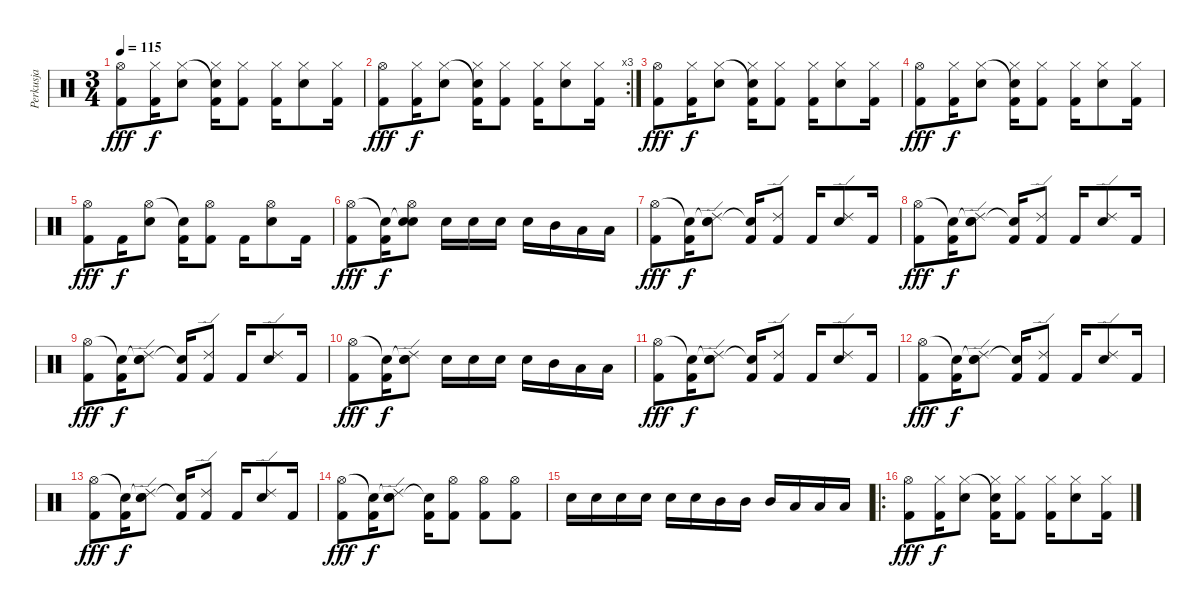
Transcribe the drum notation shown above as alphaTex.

\track ("Perkusja" "Perkusja") {instrument percussion}
\staff {score}
\articulation defaults
\ts (3 4)
\tempo 115
\clef neutral
\ks c
("Hi-Hat (open)" "Kick (hit) 2").8{dy fff} ("Hi-Hat (closed)" "Kick (hit) 2").16{dy f} ("Hi-Hat (closed)" "Snare (hit) 2").8 ("Snare (hit)"{t} "Hi-Hat (closed)" "Kick (hit) 2").16 ("Hi-Hat (closed)" "Kick (hit) 2").8 ("Hi-Hat (closed)" "Kick (hit) 2").16 ("Hi-Hat (closed)" "Snare (hit) 2").8 ("Hi-Hat (closed)" "Kick (hit) 2").16 |
\rc 3
("Hi-Hat (open)" "Kick (hit) 2").8{dy fff} ("Hi-Hat (closed)" "Kick (hit) 2").16{dy f} ("Hi-Hat (closed)" "Snare (hit) 2").8 ("Snare (hit)"{t} "Hi-Hat (closed)" "Kick (hit) 2").16 ("Hi-Hat (closed)" "Kick (hit) 2").8 ("Hi-Hat (closed)" "Kick (hit) 2").16 ("Hi-Hat (closed)" "Snare (hit) 2").8 ("Hi-Hat (closed)" "Kick (hit) 2").16 |
("Hi-Hat (open)" "Kick (hit) 2").8{dy fff} ("Hi-Hat (closed)" "Kick (hit) 2").16{dy f} ("Hi-Hat (closed)" "Snare (hit) 2").8 ("Snare (hit)"{t} "Hi-Hat (closed)" "Kick (hit) 2").16 ("Hi-Hat (closed)" "Kick (hit) 2").8 ("Hi-Hat (closed)" "Kick (hit) 2").16 ("Hi-Hat (closed)" "Snare (hit) 2").8 ("Hi-Hat (closed)" "Kick (hit) 2").16 |
("Hi-Hat (open)" "Kick (hit) 2").8{dy fff} ("Hi-Hat (closed)" "Kick (hit) 2").16{dy f} ("Hi-Hat (closed)" "Snare (hit) 2").8 ("Snare (hit)"{t} "Hi-Hat (closed)" "Kick (hit) 2").16 ("Hi-Hat (closed)" "Kick (hit) 2").8 ("Hi-Hat (closed)" "Kick (hit) 2").16 ("Hi-Hat (closed)" "Snare (hit) 2").8 ("Hi-Hat (closed)" "Kick (hit) 2").16 |
("Hi-Hat (open)" "Kick (hit) 2").8{dy fff} "Kick (hit) 2".16{dy f} ("Hi-Hat (open)" "Snare (hit) 2").8 ("Snare (hit)"{t} "Kick (hit) 2").16 ("Hi-Hat (open)" "Kick (hit) 2").8 "Kick (hit) 2".16 ("Hi-Hat (open)" "Snare (hit) 2").8 "Kick (hit) 2".16 |
("Hi-Hat (open)" "Kick (hit) 2").8{dy fff} ("Snare (hit)"{t} "Kick (hit) 2").16{dy f} ("Snare (hit)"{t} "Hi-Hat (open)" "Snare (hit) 2").8 "Snare (hit) 2".16 "Snare (hit) 2".16 "Snare (hit) 2".16 "Snare (hit) 2".16 "Mid Tom (hit)".16 "Low Tom (hit)".16 "Low Tom (hit)".16 |
("Hi-Hat (open)" "Kick (hit) 2").8{dy fff} ("Snare (hit)"{t} "Kick (hit) 2").16{dy f} ("Snare (hit)"{t} "Ride (edge) 2" "Snare (hit) 2").8 ("Snare (hit)"{t} "Kick (hit) 2").16 ("Ride (edge) 2" "Kick (hit) 2").8 "Kick (hit) 2".16 ("Ride (edge) 2" "Snare (hit) 2").8 "Kick (hit) 2".16 |
("Hi-Hat (open)" "Kick (hit) 2").8{dy fff} ("Snare (hit)"{t} "Kick (hit) 2").16{dy f} ("Snare (hit)"{t} "Ride (edge) 2" "Snare (hit) 2").8 ("Snare (hit)"{t} "Kick (hit) 2").16 ("Ride (edge) 2" "Kick (hit) 2").8 "Kick (hit) 2".16 ("Ride (edge) 2" "Snare (hit) 2").8 "Kick (hit) 2".16 |
("Hi-Hat (open)" "Kick (hit) 2").8{dy fff} ("Snare (hit)"{t} "Kick (hit) 2").16{dy f} ("Snare (hit)"{t} "Ride (edge) 2" "Snare (hit) 2").8 ("Snare (hit)"{t} "Kick (hit) 2").16 ("Ride (edge) 2" "Kick (hit) 2").8 "Kick (hit) 2".16 ("Ride (edge) 2" "Snare (hit) 2").8 "Kick (hit) 2".16 |
("Hi-Hat (open)" "Kick (hit) 2").8{dy fff} ("Snare (hit)"{t} "Kick (hit) 2").16{dy f} ("Snare (hit)"{t} "Ride (edge) 2" "Snare (hit) 2").8 "Snare (hit) 2".16 "Snare (hit) 2".16 "Snare (hit) 2".16 "Snare (hit) 2".16 "Mid Tom (hit)".16 "Low Tom (hit)".16 "Low Tom (hit)".16 |
("Hi-Hat (open)" "Kick (hit) 2").8{dy fff} ("Snare (hit)"{t} "Kick (hit) 2").16{dy f} ("Snare (hit)"{t} "Ride (edge) 2" "Snare (hit) 2").8 ("Snare (hit)"{t} "Kick (hit) 2").16 ("Ride (edge) 2" "Kick (hit) 2").8 "Kick (hit) 2".16 ("Ride (edge) 2" "Snare (hit) 2").8 "Kick (hit) 2".16 |
("Hi-Hat (open)" "Kick (hit) 2").8{dy fff} ("Snare (hit)"{t} "Kick (hit) 2").16{dy f} ("Snare (hit)"{t} "Ride (edge) 2" "Snare (hit) 2").8 ("Snare (hit)"{t} "Kick (hit) 2").16 ("Ride (edge) 2" "Kick (hit) 2").8 "Kick (hit) 2".16 ("Ride (edge) 2" "Snare (hit) 2").8 "Kick (hit) 2".16 |
("Hi-Hat (open)" "Kick (hit) 2").8{dy fff} ("Snare (hit)"{t} "Kick (hit) 2").16{dy f} ("Snare (hit)"{t} "Ride (edge) 2" "Snare (hit) 2").8 ("Snare (hit)"{t} "Kick (hit) 2").16 ("Ride (edge) 2" "Kick (hit) 2").8 "Kick (hit) 2".16 ("Ride (edge) 2" "Snare (hit) 2").8 "Kick (hit) 2".16 |
("Hi-Hat (open)" "Kick (hit) 2").8{dy fff} ("Snare (hit)"{t} "Kick (hit) 2").16{dy f} ("Snare (hit)"{t} "Ride (edge) 2" "Snare (hit) 2").8 ("Snare (hit)"{t} "Kick (hit) 2").16 ("Hi-Hat (open)" "Kick (hit) 2").8 ("Hi-Hat (open)" "Kick (hit) 2").8 ("Hi-Hat (open)" "Kick (hit) 2").8 |
"Snare (hit) 2".16 "Snare (hit) 2".16 "Snare (hit) 2".16 "Snare (hit) 2".16 "Snare (hit) 2".16 "Snare (hit) 2".16 "Mid Tom (hit)".16 "Mid Tom (hit)".16 "Mid Tom (hit)".16 "Low Tom (hit)".16 "Low Tom (hit)".16 "Low Tom (hit)".16 |
\ro
("Hi-Hat (open)" "Kick (hit) 2").8{dy fff} ("Hi-Hat (closed)" "Kick (hit) 2").16{dy f} ("Hi-Hat (closed)" "Snare (hit) 2").8 ("Snare (hit)"{t} "Hi-Hat (closed)" "Kick (hit) 2").16 ("Hi-Hat (closed)" "Kick (hit) 2").8 ("Hi-Hat (closed)" "Kick (hit) 2").16 ("Hi-Hat (closed)" "Snare (hit) 2").8 ("Hi-Hat (closed)" "Kick (hit) 2").16
